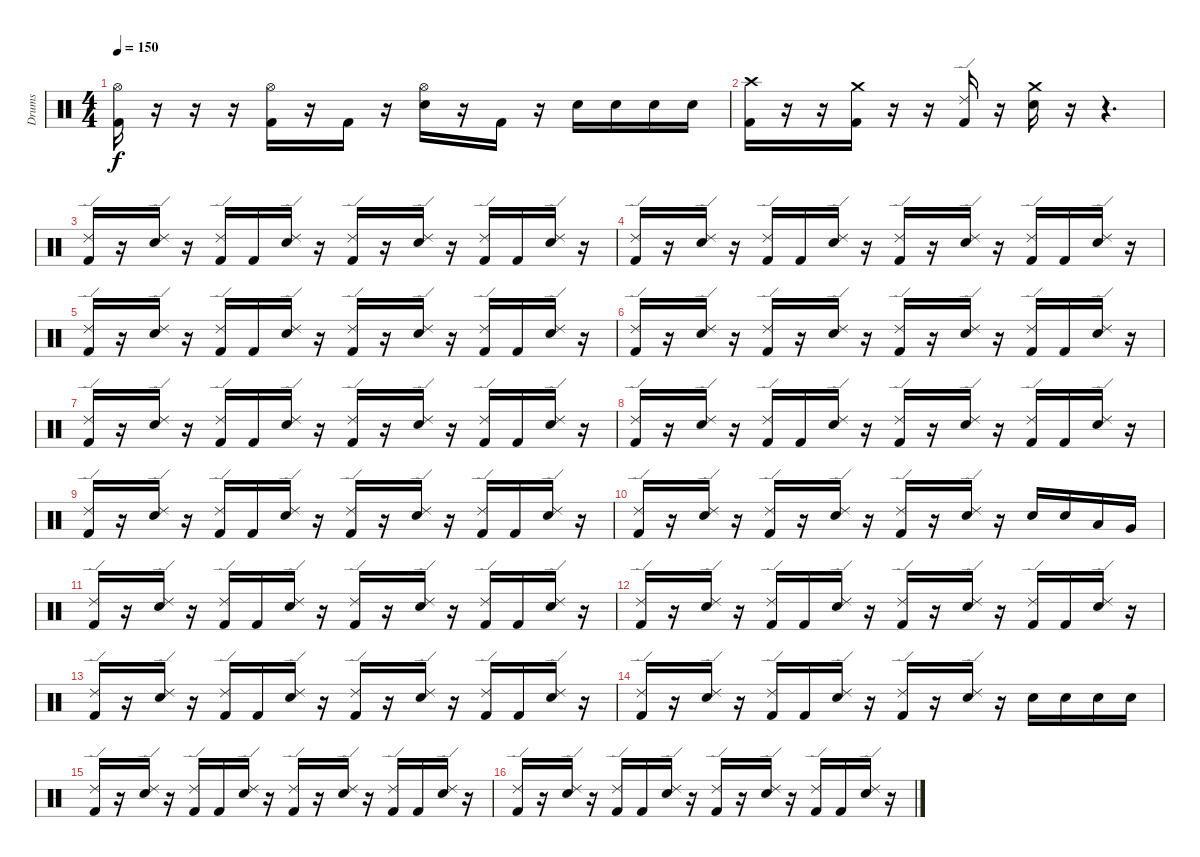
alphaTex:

\track ("Drums" "Drums") {instrument percussion}
\staff {score}
\articulation defaults
\ts (4 4)
\tempo 150
\clef neutral
\ks c
("Hi-Hat (open)" "Kick (hit) 2").16{dy f} r.16 r.16 r.16 ("Hi-Hat (open)" "Kick (hit) 2").16 r.16 "Kick (hit) 2".16 r.16 ("Hi-Hat (open)" "Electric Snare (hit)").16 r.16 "Kick (hit) 2".16 r.16 "Electric Snare (hit)".16 "Electric Snare (hit)".16 "Electric Snare (hit)".16 "Electric Snare (hit)".16 |
("Crash high (hit)" "Kick (hit) 2").16 r.16 r.16 ("Crash medium (hit)" "Kick (hit) 2").16 r.16 r.16 ("Ride (edge) 2" "Kick (hit) 2").16 r.16 ("Crash medium (hit)" "Electric Snare (hit)").16 r.16 r.4{d} |
("Ride (edge) 2" "Kick (hit) 2").16 r.16 ("Ride (edge) 2" "Electric Snare (hit)").16 r.16 ("Ride (edge) 2" "Kick (hit) 2").16 "Kick (hit) 2".16 ("Ride (edge) 2" "Electric Snare (hit)").16 r.16 ("Ride (edge) 2" "Kick (hit) 2").16 r.16 ("Ride (edge) 2" "Electric Snare (hit)").16 r.16 ("Ride (edge) 2" "Kick (hit) 2").16 "Kick (hit) 2".16 ("Ride (edge) 2" "Electric Snare (hit)").16 r.16 |
("Ride (edge) 2" "Kick (hit) 2").16 r.16 ("Ride (edge) 2" "Electric Snare (hit)").16 r.16 ("Ride (edge) 2" "Kick (hit) 2").16 "Kick (hit) 2".16 ("Ride (edge) 2" "Electric Snare (hit)").16 r.16 ("Ride (edge) 2" "Kick (hit) 2").16 r.16 ("Ride (edge) 2" "Electric Snare (hit)").16 r.16 ("Ride (edge) 2" "Kick (hit) 2").16 "Kick (hit) 2".16 ("Ride (edge) 2" "Electric Snare (hit)").16 r.16 |
("Ride (edge) 2" "Kick (hit) 2").16 r.16 ("Ride (edge) 2" "Electric Snare (hit)").16 r.16 ("Ride (edge) 2" "Kick (hit) 2").16 "Kick (hit) 2".16 ("Ride (edge) 2" "Electric Snare (hit)").16 r.16 ("Ride (edge) 2" "Kick (hit) 2").16 r.16 ("Ride (edge) 2" "Electric Snare (hit)").16 r.16 ("Ride (edge) 2" "Kick (hit) 2").16 "Kick (hit) 2".16 ("Ride (edge) 2" "Electric Snare (hit)").16 r.16 |
("Ride (edge) 2" "Kick (hit) 2").16 r.16 ("Ride (edge) 2" "Electric Snare (hit)").16 r.16 ("Ride (edge) 2" "Kick (hit) 2").16 r.16 ("Ride (edge) 2" "Electric Snare (hit)").16 r.16 ("Ride (edge) 2" "Kick (hit) 2").16 r.16 ("Ride (edge) 2" "Electric Snare (hit)").16 r.16 ("Ride (edge) 2" "Kick (hit) 2").16 "Kick (hit) 2".16 ("Ride (edge) 2" "Electric Snare (hit)").16 r.16 |
("Ride (edge) 2" "Kick (hit) 2").16 r.16 ("Ride (edge) 2" "Electric Snare (hit)").16 r.16 ("Ride (edge) 2" "Kick (hit) 2").16 "Kick (hit) 2".16 ("Ride (edge) 2" "Electric Snare (hit)").16 r.16 ("Ride (edge) 2" "Kick (hit) 2").16 r.16 ("Ride (edge) 2" "Electric Snare (hit)").16 r.16 ("Ride (edge) 2" "Kick (hit) 2").16 "Kick (hit) 2".16 ("Ride (edge) 2" "Electric Snare (hit)").16 r.16 |
("Ride (edge) 2" "Kick (hit) 2").16 r.16 ("Ride (edge) 2" "Electric Snare (hit)").16 r.16 ("Ride (edge) 2" "Kick (hit) 2").16 "Kick (hit) 2".16 ("Ride (edge) 2" "Electric Snare (hit)").16 r.16 ("Ride (edge) 2" "Kick (hit) 2").16 r.16 ("Ride (edge) 2" "Electric Snare (hit)").16 r.16 ("Ride (edge) 2" "Kick (hit) 2").16 "Kick (hit) 2".16 ("Ride (edge) 2" "Electric Snare (hit)").16 r.16 |
("Ride (edge) 2" "Kick (hit) 2").16 r.16 ("Ride (edge) 2" "Electric Snare (hit)").16 r.16 ("Ride (edge) 2" "Kick (hit) 2").16 "Kick (hit) 2".16 ("Ride (edge) 2" "Electric Snare (hit)").16 r.16 ("Ride (edge) 2" "Kick (hit) 2").16 r.16 ("Ride (edge) 2" "Electric Snare (hit)").16 r.16 ("Ride (edge) 2" "Kick (hit) 2").16 "Kick (hit) 2".16 ("Ride (edge) 2" "Electric Snare (hit)").16 r.16 |
("Ride (edge) 2" "Kick (hit) 2").16 r.16 ("Ride (edge) 2" "Electric Snare (hit)").16 r.16 ("Ride (edge) 2" "Kick (hit) 2").16 r.16 ("Ride (edge) 2" "Electric Snare (hit)").16 r.16 ("Ride (edge) 2" "Kick (hit) 2").16 r.16 ("Ride (edge) 2" "Electric Snare (hit)").16 r.16 "Electric Snare (hit)".16 "Electric Snare (hit)".16 "Low Tom (hit)".16 "Very Low Tom (hit)".16 |
("Ride (edge) 2" "Kick (hit) 2").16 r.16 ("Ride (edge) 2" "Electric Snare (hit)").16 r.16 ("Ride (edge) 2" "Kick (hit) 2").16 "Kick (hit) 2".16 ("Ride (edge) 2" "Electric Snare (hit)").16 r.16 ("Ride (edge) 2" "Kick (hit) 2").16 r.16 ("Ride (edge) 2" "Electric Snare (hit)").16 r.16 ("Ride (edge) 2" "Kick (hit) 2").16 "Kick (hit) 2".16 ("Ride (edge) 2" "Electric Snare (hit)").16 r.16 |
("Ride (edge) 2" "Kick (hit) 2").16 r.16 ("Ride (edge) 2" "Electric Snare (hit)").16 r.16 ("Ride (edge) 2" "Kick (hit) 2").16 "Kick (hit) 2".16 ("Ride (edge) 2" "Electric Snare (hit)").16 r.16 ("Ride (edge) 2" "Kick (hit) 2").16 r.16 ("Ride (edge) 2" "Electric Snare (hit)").16 r.16 ("Ride (edge) 2" "Kick (hit) 2").16 "Kick (hit) 2".16 ("Ride (edge) 2" "Electric Snare (hit)").16 r.16 |
("Ride (edge) 2" "Kick (hit) 2").16 r.16 ("Ride (edge) 2" "Electric Snare (hit)").16 r.16 ("Ride (edge) 2" "Kick (hit) 2").16 "Kick (hit) 2".16 ("Ride (edge) 2" "Electric Snare (hit)").16 r.16 ("Ride (edge) 2" "Kick (hit) 2").16 r.16 ("Ride (edge) 2" "Electric Snare (hit)").16 r.16 ("Ride (edge) 2" "Kick (hit) 2").16 "Kick (hit) 2".16 ("Ride (edge) 2" "Electric Snare (hit)").16 r.16 |
("Ride (edge) 2" "Kick (hit) 2").16 r.16 ("Ride (edge) 2" "Electric Snare (hit)").16 r.16 ("Ride (edge) 2" "Kick (hit) 2").16 "Kick (hit) 2".16 ("Ride (edge) 2" "Electric Snare (hit)").16 r.16 ("Ride (edge) 2" "Kick (hit) 2").16 r.16 ("Ride (edge) 2" "Electric Snare (hit)").16 r.16 "Electric Snare (hit)".16 "Electric Snare (hit)".16 "Electric Snare (hit)".16 "Electric Snare (hit)".16 |
("Ride (edge) 2" "Kick (hit) 2").16 r.16 ("Ride (edge) 2" "Electric Snare (hit)").16 r.16 ("Ride (edge) 2" "Kick (hit) 2").16 "Kick (hit) 2".16 ("Ride (edge) 2" "Electric Snare (hit)").16 r.16 ("Ride (edge) 2" "Kick (hit) 2").16 r.16 ("Ride (edge) 2" "Electric Snare (hit)").16 r.16 ("Ride (edge) 2" "Kick (hit) 2").16 "Kick (hit) 2".16 ("Ride (edge) 2" "Electric Snare (hit)").16 r.16 |
("Ride (edge) 2" "Kick (hit) 2").16 r.16 ("Ride (edge) 2" "Electric Snare (hit)").16 r.16 ("Ride (edge) 2" "Kick (hit) 2").16 "Kick (hit) 2".16 ("Ride (edge) 2" "Electric Snare (hit)").16 r.16 ("Ride (edge) 2" "Kick (hit) 2").16 r.16 ("Ride (edge) 2" "Electric Snare (hit)").16 r.16 ("Ride (edge) 2" "Kick (hit) 2").16 "Kick (hit) 2".16 ("Ride (edge) 2" "Electric Snare (hit)").16 r.16
